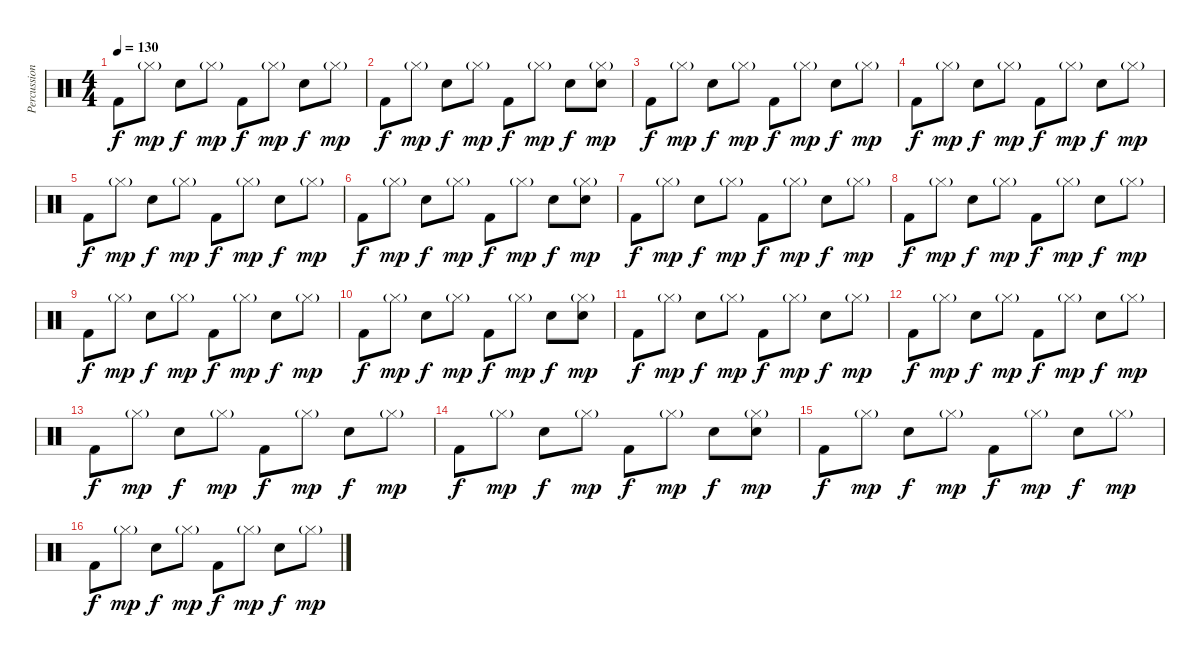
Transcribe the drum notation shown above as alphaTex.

\track ("Percussion" "Percussion") {instrument percussion}
\staff {score}
\articulation defaults
\ts (4 4)
\tempo 130
\clef neutral
\ks c "Kick (hit) 2".8{dy f} "Hi-Hat (closed)"{g}.8{dy mp} "Electric Snare (hit)".8{dy f} "Hi-Hat (closed)"{g}.8{dy mp} "Kick (hit) 2".8{dy f} "Hi-Hat (closed)"{g}.8{dy mp} "Electric Snare (hit)".8{dy f} "Hi-Hat (closed)"{g}.8{dy mp}
|
"Kick (hit) 2".8{dy f} "Hi-Hat (closed)"{g}.8{dy mp} "Electric Snare (hit)".8{dy f} "Hi-Hat (closed)"{g}.8{dy mp} "Kick (hit) 2".8{dy f} "Hi-Hat (closed)"{g}.8{dy mp} "Electric Snare (hit)".8{dy f} ("Hi-Hat (closed)"{g} "Electric Snare (hit)").8{dy mp} |
"Kick (hit) 2".8{dy f} "Hi-Hat (closed)"{g}.8{dy mp} "Electric Snare (hit)".8{dy f} "Hi-Hat (closed)"{g}.8{dy mp} "Kick (hit) 2".8{dy f} "Hi-Hat (closed)"{g}.8{dy mp} "Electric Snare (hit)".8{dy f} "Hi-Hat (closed)"{g}.8{dy mp} |
"Kick (hit) 2".8{dy f} "Hi-Hat (closed)"{g}.8{dy mp} "Electric Snare (hit)".8{dy f} "Hi-Hat (closed)"{g}.8{dy mp} "Kick (hit) 2".8{dy f} "Hi-Hat (closed)"{g}.8{dy mp} "Electric Snare (hit)".8{dy f} "Hi-Hat (closed)"{g}.8{dy mp} |
"Kick (hit) 2".8{dy f} "Hi-Hat (closed)"{g}.8{dy mp} "Electric Snare (hit)".8{dy f} "Hi-Hat (closed)"{g}.8{dy mp} "Kick (hit) 2".8{dy f} "Hi-Hat (closed)"{g}.8{dy mp} "Electric Snare (hit)".8{dy f} "Hi-Hat (closed)"{g}.8{dy mp} |
"Kick (hit) 2".8{dy f} "Hi-Hat (closed)"{g}.8{dy mp} "Electric Snare (hit)".8{dy f} "Hi-Hat (closed)"{g}.8{dy mp} "Kick (hit) 2".8{dy f} "Hi-Hat (closed)"{g}.8{dy mp} "Electric Snare (hit)".8{dy f} ("Hi-Hat (closed)"{g} "Electric Snare (hit)").8{dy mp} |
"Kick (hit) 2".8{dy f} "Hi-Hat (closed)"{g}.8{dy mp} "Electric Snare (hit)".8{dy f} "Hi-Hat (closed)"{g}.8{dy mp} "Kick (hit) 2".8{dy f} "Hi-Hat (closed)"{g}.8{dy mp} "Electric Snare (hit)".8{dy f} "Hi-Hat (closed)"{g}.8{dy mp} |
"Kick (hit) 2".8{dy f} "Hi-Hat (closed)"{g}.8{dy mp} "Electric Snare (hit)".8{dy f} "Hi-Hat (closed)"{g}.8{dy mp} "Kick (hit) 2".8{dy f} "Hi-Hat (closed)"{g}.8{dy mp} "Electric Snare (hit)".8{dy f} "Hi-Hat (closed)"{g}.8{dy mp} |
"Kick (hit) 2".8{dy f} "Hi-Hat (closed)"{g}.8{dy mp} "Electric Snare (hit)".8{dy f} "Hi-Hat (closed)"{g}.8{dy mp} "Kick (hit) 2".8{dy f} "Hi-Hat (closed)"{g}.8{dy mp} "Electric Snare (hit)".8{dy f} "Hi-Hat (closed)"{g}.8{dy mp} |
"Kick (hit) 2".8{dy f} "Hi-Hat (closed)"{g}.8{dy mp} "Electric Snare (hit)".8{dy f} "Hi-Hat (closed)"{g}.8{dy mp} "Kick (hit) 2".8{dy f} "Hi-Hat (closed)"{g}.8{dy mp} "Electric Snare (hit)".8{dy f} ("Hi-Hat (closed)"{g} "Electric Snare (hit)").8{dy mp} |
"Kick (hit) 2".8{dy f} "Hi-Hat (closed)"{g}.8{dy mp} "Electric Snare (hit)".8{dy f} "Hi-Hat (closed)"{g}.8{dy mp} "Kick (hit) 2".8{dy f} "Hi-Hat (closed)"{g}.8{dy mp} "Electric Snare (hit)".8{dy f} "Hi-Hat (closed)"{g}.8{dy mp} |
"Kick (hit) 2".8{dy f} "Hi-Hat (closed)"{g}.8{dy mp} "Electric Snare (hit)".8{dy f} "Hi-Hat (closed)"{g}.8{dy mp} "Kick (hit) 2".8{dy f} "Hi-Hat (closed)"{g}.8{dy mp} "Electric Snare (hit)".8{dy f} "Hi-Hat (closed)"{g}.8{dy mp} |
"Kick (hit) 2".8{dy f} "Hi-Hat (closed)"{g}.8{dy mp} "Electric Snare (hit)".8{dy f} "Hi-Hat (closed)"{g}.8{dy mp} "Kick (hit) 2".8{dy f} "Hi-Hat (closed)"{g}.8{dy mp} "Electric Snare (hit)".8{dy f} "Hi-Hat (closed)"{g}.8{dy mp} |
"Kick (hit) 2".8{dy f} "Hi-Hat (closed)"{g}.8{dy mp} "Electric Snare (hit)".8{dy f} "Hi-Hat (closed)"{g}.8{dy mp} "Kick (hit) 2".8{dy f} "Hi-Hat (closed)"{g}.8{dy mp} "Electric Snare (hit)".8{dy f} ("Hi-Hat (closed)"{g} "Electric Snare (hit)").8{dy mp} |
"Kick (hit) 2".8{dy f} "Hi-Hat (closed)"{g}.8{dy mp} "Electric Snare (hit)".8{dy f} "Hi-Hat (closed)"{g}.8{dy mp} "Kick (hit) 2".8{dy f} "Hi-Hat (closed)"{g}.8{dy mp} "Electric Snare (hit)".8{dy f} "Hi-Hat (closed)"{g}.8{dy mp} |
"Kick (hit) 2".8{dy f} "Hi-Hat (closed)"{g}.8{dy mp} "Electric Snare (hit)".8{dy f} "Hi-Hat (closed)"{g}.8{dy mp} "Kick (hit) 2".8{dy f} "Hi-Hat (closed)"{g}.8{dy mp} "Electric Snare (hit)".8{dy f} "Hi-Hat (closed)"{g}.8{dy mp}
